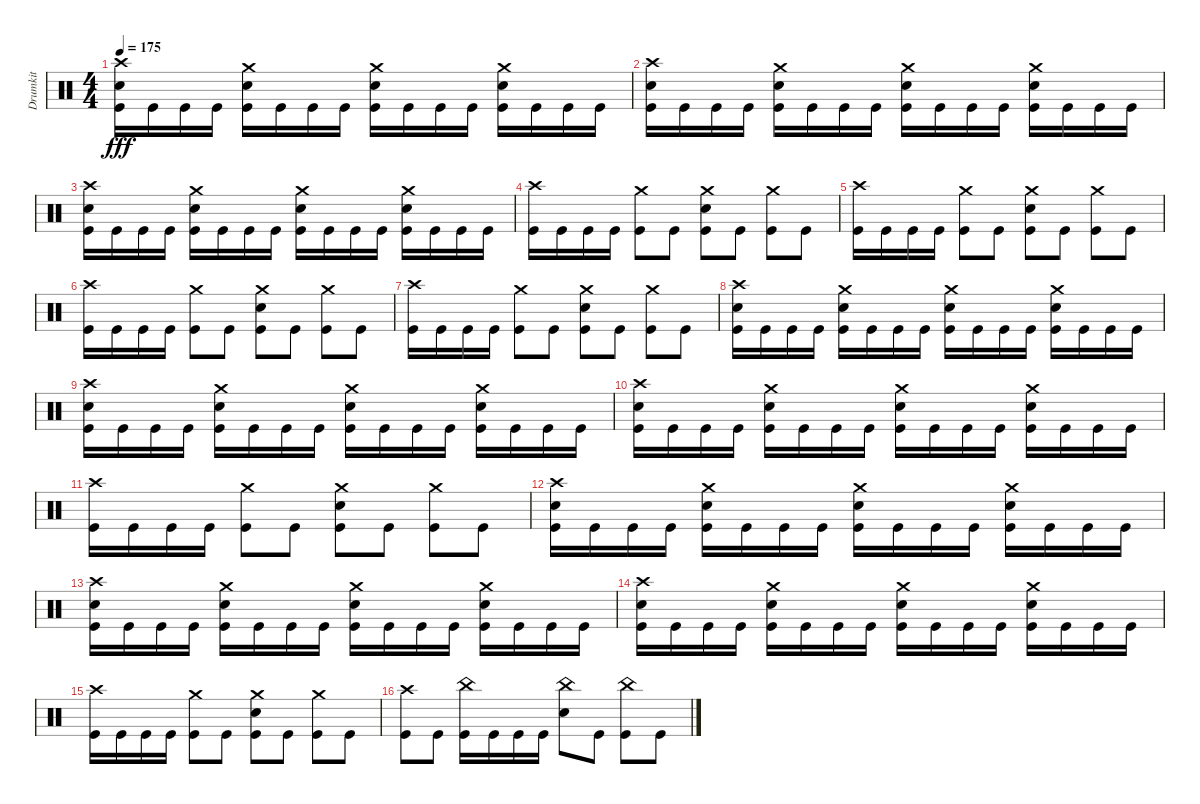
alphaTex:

\track ("Drumkit" "Drumkit") {instrument percussion}
\staff {score}
\articulation defaults
\ts (4 4)
\tempo 175
\clef neutral
\ks c
("Crash high (hit)" "Snare (hit) 2" "Kick (hit)").16{dy fff} "Kick (hit)".16 "Kick (hit)".16 "Kick (hit)".16 ("Crash medium (hit)" "Snare (hit) 2" "Kick (hit)").16 "Kick (hit)".16 "Kick (hit)".16 "Kick (hit)".16 ("Crash medium (hit)" "Snare (hit) 2" "Kick (hit)").16 "Kick (hit)".16 "Kick (hit)".16 "Kick (hit)".16 ("Crash medium (hit)" "Snare (hit) 2" "Kick (hit)").16 "Kick (hit)".16 "Kick (hit)".16 "Kick (hit)".16 |
("Crash high (hit)" "Snare (hit) 2" "Kick (hit)").16 "Kick (hit)".16 "Kick (hit)".16 "Kick (hit)".16 ("Crash medium (hit)" "Snare (hit) 2" "Kick (hit)").16 "Kick (hit)".16 "Kick (hit)".16 "Kick (hit)".16 ("Crash medium (hit)" "Snare (hit) 2" "Kick (hit)").16 "Kick (hit)".16 "Kick (hit)".16 "Kick (hit)".16 ("Crash medium (hit)" "Snare (hit) 2" "Kick (hit)").16 "Kick (hit)".16 "Kick (hit)".16 "Kick (hit)".16 |
("Crash high (hit)" "Snare (hit) 2" "Kick (hit)").16 "Kick (hit)".16 "Kick (hit)".16 "Kick (hit)".16 ("Crash medium (hit)" "Snare (hit) 2" "Kick (hit)").16 "Kick (hit)".16 "Kick (hit)".16 "Kick (hit)".16 ("Crash medium (hit)" "Snare (hit) 2" "Kick (hit)").16 "Kick (hit)".16 "Kick (hit)".16 "Kick (hit)".16 ("Crash medium (hit)" "Snare (hit) 2" "Kick (hit)").16 "Kick (hit)".16 "Kick (hit)".16 "Kick (hit)".16 |
("Crash high (hit)" "Kick (hit)").16 "Kick (hit)".16 "Kick (hit)".16 "Kick (hit)".16 ("Crash medium (hit)" "Kick (hit)").8 "Kick (hit)".8 ("Crash medium (hit)" "Snare (hit) 2" "Kick (hit)").8 "Kick (hit)".8 ("Crash medium (hit)" "Kick (hit)").8 "Kick (hit)".8 |
("Crash high (hit)" "Kick (hit)").16 "Kick (hit)".16 "Kick (hit)".16 "Kick (hit)".16 ("Crash medium (hit)" "Kick (hit)").8 "Kick (hit)".8 ("Crash medium (hit)" "Snare (hit) 2" "Kick (hit)").8 "Kick (hit)".8 ("Crash medium (hit)" "Kick (hit)").8 "Kick (hit)".8 |
("Crash high (hit)" "Kick (hit)").16 "Kick (hit)".16 "Kick (hit)".16 "Kick (hit)".16 ("Crash medium (hit)" "Kick (hit)").8 "Kick (hit)".8 ("Crash medium (hit)" "Snare (hit) 2" "Kick (hit)").8 "Kick (hit)".8 ("Crash medium (hit)" "Kick (hit)").8 "Kick (hit)".8 |
("Crash high (hit)" "Kick (hit)").16 "Kick (hit)".16 "Kick (hit)".16 "Kick (hit)".16 ("Crash medium (hit)" "Kick (hit)").8 "Kick (hit)".8 ("Crash medium (hit)" "Snare (hit) 2" "Kick (hit)").8 "Kick (hit)".8 ("Crash medium (hit)" "Kick (hit)").8 "Kick (hit)".8 |
("Crash high (hit)" "Snare (hit) 2" "Kick (hit)").16 "Kick (hit)".16 "Kick (hit)".16 "Kick (hit)".16 ("Crash medium (hit)" "Snare (hit) 2" "Kick (hit)").16 "Kick (hit)".16 "Kick (hit)".16 "Kick (hit)".16 ("Crash medium (hit)" "Snare (hit) 2" "Kick (hit)").16 "Kick (hit)".16 "Kick (hit)".16 "Kick (hit)".16 ("Crash medium (hit)" "Snare (hit) 2" "Kick (hit)").16 "Kick (hit)".16 "Kick (hit)".16 "Kick (hit)".16 |
("Crash high (hit)" "Snare (hit) 2" "Kick (hit)").16 "Kick (hit)".16 "Kick (hit)".16 "Kick (hit)".16 ("Crash medium (hit)" "Snare (hit) 2" "Kick (hit)").16 "Kick (hit)".16 "Kick (hit)".16 "Kick (hit)".16 ("Crash medium (hit)" "Snare (hit) 2" "Kick (hit)").16 "Kick (hit)".16 "Kick (hit)".16 "Kick (hit)".16 ("Crash medium (hit)" "Snare (hit) 2" "Kick (hit)").16 "Kick (hit)".16 "Kick (hit)".16 "Kick (hit)".16 |
("Crash high (hit)" "Snare (hit) 2" "Kick (hit)").16 "Kick (hit)".16 "Kick (hit)".16 "Kick (hit)".16 ("Crash medium (hit)" "Snare (hit) 2" "Kick (hit)").16 "Kick (hit)".16 "Kick (hit)".16 "Kick (hit)".16 ("Crash medium (hit)" "Snare (hit) 2" "Kick (hit)").16 "Kick (hit)".16 "Kick (hit)".16 "Kick (hit)".16 ("Crash medium (hit)" "Snare (hit) 2" "Kick (hit)").16 "Kick (hit)".16 "Kick (hit)".16 "Kick (hit)".16 |
("Crash high (hit)" "Kick (hit)").16 "Kick (hit)".16 "Kick (hit)".16 "Kick (hit)".16 ("Crash medium (hit)" "Kick (hit)").8 "Kick (hit)".8 ("Crash medium (hit)" "Snare (hit) 2" "Kick (hit)").8 "Kick (hit)".8 ("Crash medium (hit)" "Kick (hit)").8 "Kick (hit)".8 |
("Crash high (hit)" "Snare (hit) 2" "Kick (hit)").16 "Kick (hit)".16 "Kick (hit)".16 "Kick (hit)".16 ("Crash medium (hit)" "Snare (hit) 2" "Kick (hit)").16 "Kick (hit)".16 "Kick (hit)".16 "Kick (hit)".16 ("Crash medium (hit)" "Snare (hit) 2" "Kick (hit)").16 "Kick (hit)".16 "Kick (hit)".16 "Kick (hit)".16 ("Crash medium (hit)" "Snare (hit) 2" "Kick (hit)").16 "Kick (hit)".16 "Kick (hit)".16 "Kick (hit)".16 |
("Crash high (hit)" "Snare (hit) 2" "Kick (hit)").16 "Kick (hit)".16 "Kick (hit)".16 "Kick (hit)".16 ("Crash medium (hit)" "Snare (hit) 2" "Kick (hit)").16 "Kick (hit)".16 "Kick (hit)".16 "Kick (hit)".16 ("Crash medium (hit)" "Snare (hit) 2" "Kick (hit)").16 "Kick (hit)".16 "Kick (hit)".16 "Kick (hit)".16 ("Crash medium (hit)" "Snare (hit) 2" "Kick (hit)").16 "Kick (hit)".16 "Kick (hit)".16 "Kick (hit)".16 |
("Crash high (hit)" "Snare (hit) 2" "Kick (hit)").16 "Kick (hit)".16 "Kick (hit)".16 "Kick (hit)".16 ("Crash medium (hit)" "Snare (hit) 2" "Kick (hit)").16 "Kick (hit)".16 "Kick (hit)".16 "Kick (hit)".16 ("Crash medium (hit)" "Snare (hit) 2" "Kick (hit)").16 "Kick (hit)".16 "Kick (hit)".16 "Kick (hit)".16 ("Crash medium (hit)" "Snare (hit) 2" "Kick (hit)").16 "Kick (hit)".16 "Kick (hit)".16 "Kick (hit)".16 |
("Crash high (hit)" "Kick (hit)").16 "Kick (hit)".16 "Kick (hit)".16 "Kick (hit)".16 ("Crash medium (hit)" "Kick (hit)").8 "Kick (hit)".8 ("Crash medium (hit)" "Snare (hit) 2" "Kick (hit)").8 "Kick (hit)".8 ("Crash medium (hit)" "Kick (hit)").8 "Kick (hit)".8 |
("Crash high (hit)" "Kick (hit)").8 "Kick (hit)".8 ("China (hit)" "Kick (hit)").16 "Kick (hit)".16 "Kick (hit)".16 "Kick (hit)".16 ("China (hit)" "Snare (hit) 2").8 "Kick (hit)".8 ("China (hit)" "Kick (hit)").8 "Kick (hit)".8
